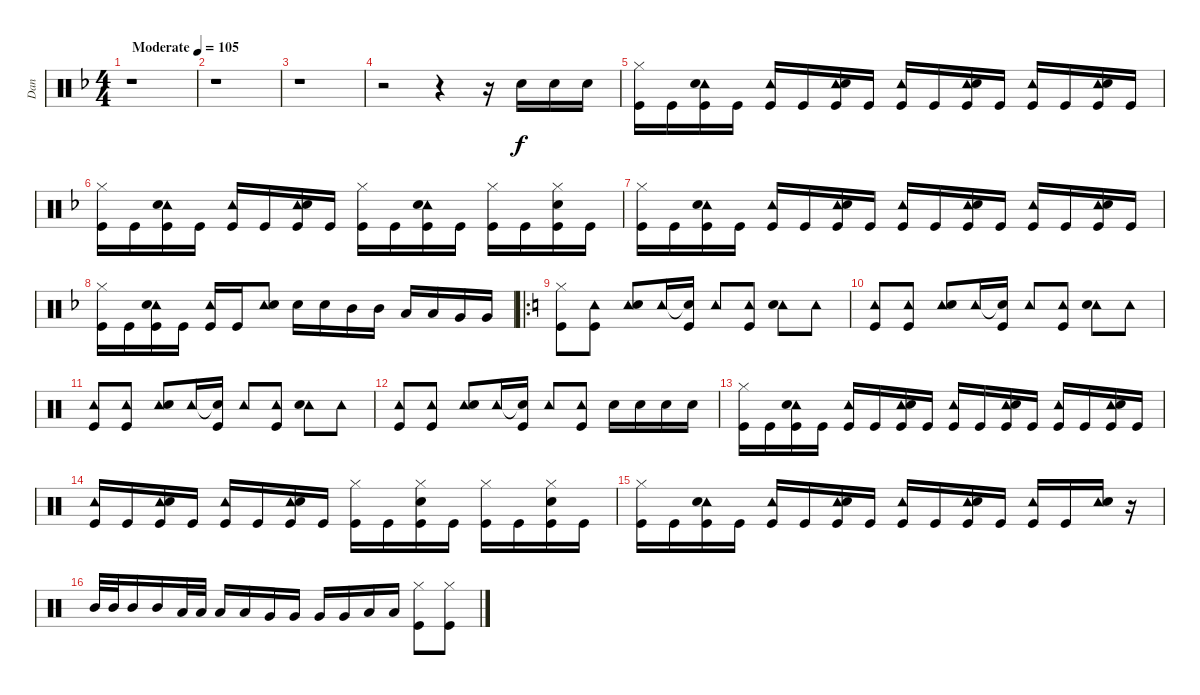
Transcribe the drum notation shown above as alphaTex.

\track ("Dan" "Dan") {instrument percussion}
\staff {score}
\articulation defaults
\ts (4 4)
\tempo (105 "Moderate")
\clef neutral
\ks f
r.1{dy f} |
r.1 |
r.1 |
r.2 r.4 r.16 "Snare (hit) 2".16 "Snare (hit) 2".16 "Snare (hit) 2".16 |
("Hi-Hat (closed)" "Kick (hit)").16 "Kick (hit)".16 ("Tambourine (hit)" "Snare (hit) 2" "Kick (hit)").16 "Kick (hit)".16 ("Tambourine (hit)" "Kick (hit)").16 "Kick (hit)".16 ("Tambourine (hit)" "Snare (hit) 2" "Kick (hit)").16 "Kick (hit)".16 ("Tambourine (hit)" "Kick (hit)").16 "Kick (hit)".16 ("Tambourine (hit)" "Snare (hit) 2" "Kick (hit)").16 "Kick (hit)".16 ("Tambourine (hit)" "Kick (hit)").16 "Kick (hit)".16 ("Tambourine (hit)" "Snare (hit) 2" "Kick (hit)").16 "Kick (hit)".16 |
("Hi-Hat (closed)" "Kick (hit)").16 "Kick (hit)".16 ("Tambourine (hit)" "Snare (hit) 2" "Kick (hit)").16 "Kick (hit)".16 ("Tambourine (hit)" "Kick (hit)").16 "Kick (hit)".16 ("Tambourine (hit)" "Snare (hit) 2" "Kick (hit)").16 "Kick (hit)".16 ("Hi-Hat (closed)" "Kick (hit)").16 "Kick (hit)".16 ("Tambourine (hit)" "Snare (hit) 2" "Kick (hit)").16 "Kick (hit)".16 ("Hi-Hat (closed)" "Kick (hit)").16 "Kick (hit)".16 ("Hi-Hat (closed)" "Snare (hit) 2" "Kick (hit)").16 "Kick (hit)".16 |
("Hi-Hat (closed)" "Kick (hit)").16 "Kick (hit)".16 ("Tambourine (hit)" "Snare (hit) 2" "Kick (hit)").16 "Kick (hit)".16 ("Tambourine (hit)" "Kick (hit)").16 "Kick (hit)".16 ("Tambourine (hit)" "Snare (hit) 2" "Kick (hit)").16 "Kick (hit)".16 ("Tambourine (hit)" "Kick (hit)").16 "Kick (hit)".16 ("Tambourine (hit)" "Snare (hit) 2" "Kick (hit)").16 "Kick (hit)".16 ("Tambourine (hit)" "Kick (hit)").16 "Kick (hit)".16 ("Tambourine (hit)" "Snare (hit) 2" "Kick (hit)").16 "Kick (hit)".16 |
("Hi-Hat (closed)" "Kick (hit)").16 "Kick (hit)".16 ("Tambourine (hit)" "Snare (hit) 2" "Kick (hit)").16 "Kick (hit)".16 ("Tambourine (hit)" "Kick (hit)").16 "Kick (hit)".16 ("Tambourine (hit)" "Snare (hit) 2").8 "Snare (hit) 2".16 "Snare (hit) 2".16 "Mid Tom (hit)".16 "Mid Tom (hit)".16 "Low Tom (hit)".16 "Low Tom (hit)".16 "Very Low Tom (hit)".16 "Very Low Tom (hit)".16 |
\ro
\ks c
("Hi-Hat (closed)" "Kick (hit)").8 ("Tambourine (hit)" "Kick (hit)").8 ("Tambourine (hit)" "Snare (hit) 2").8 "Tambourine (hit)".16 ("Snare (hit)"{t} "Kick (hit)").16 "Tambourine (hit)".8 ("Tambourine (hit)" "Kick (hit)").8 ("Tambourine (hit)" "Snare (hit) 2").8 "Tambourine (hit)".8 |
("Tambourine (hit)" "Kick (hit)").8 ("Tambourine (hit)" "Kick (hit)").8 ("Tambourine (hit)" "Snare (hit) 2").8 "Tambourine (hit)".16 ("Snare (hit)"{t} "Kick (hit)").16 "Tambourine (hit)".8 ("Tambourine (hit)" "Kick (hit)").8 ("Tambourine (hit)" "Snare (hit) 2").8 "Tambourine (hit)".8 |
("Tambourine (hit)" "Kick (hit)").8 ("Tambourine (hit)" "Kick (hit)").8 ("Tambourine (hit)" "Snare (hit) 2").8 "Tambourine (hit)".16 ("Snare (hit)"{t} "Kick (hit)").16 "Tambourine (hit)".8 ("Tambourine (hit)" "Kick (hit)").8 ("Tambourine (hit)" "Snare (hit) 2").8 "Tambourine (hit)".8 |
("Tambourine (hit)" "Kick (hit)").8 ("Tambourine (hit)" "Kick (hit)").8 ("Tambourine (hit)" "Snare (hit) 2").8 "Tambourine (hit)".16 ("Snare (hit)"{t} "Kick (hit)").16 "Tambourine (hit)".8 ("Tambourine (hit)" "Kick (hit)").8 "Snare (hit) 2".16 "Snare (hit) 2".16 "Snare (hit) 2".16 "Snare (hit) 2".16 |
("Hi-Hat (closed)" "Kick (hit)").16 "Kick (hit)".16 ("Tambourine (hit)" "Snare (hit) 2" "Kick (hit)").16 "Kick (hit)".16 ("Tambourine (hit)" "Kick (hit)").16 "Kick (hit)".16 ("Tambourine (hit)" "Snare (hit) 2" "Kick (hit)").16 "Kick (hit)".16 ("Tambourine (hit)" "Kick (hit)").16 "Kick (hit)".16 ("Tambourine (hit)" "Snare (hit) 2" "Kick (hit)").16 "Kick (hit)".16 ("Tambourine (hit)" "Kick (hit)").16 "Kick (hit)".16 ("Tambourine (hit)" "Snare (hit) 2" "Kick (hit)").16 "Kick (hit)".16 |
("Tambourine (hit)" "Kick (hit)").16 "Kick (hit)".16 ("Tambourine (hit)" "Snare (hit) 2" "Kick (hit)").16 "Kick (hit)".16 ("Tambourine (hit)" "Kick (hit)").16 "Kick (hit)".16 ("Tambourine (hit)" "Snare (hit) 2" "Kick (hit)").16 "Kick (hit)".16 ("Hi-Hat (closed)" "Kick (hit)").16 "Kick (hit)".16 ("Hi-Hat (closed)" "Snare (hit) 2" "Kick (hit)").16 "Kick (hit)".16 ("Hi-Hat (closed)" "Kick (hit)").16 "Kick (hit)".16 ("Hi-Hat (closed)" "Snare (hit) 2" "Kick (hit)").16 "Kick (hit)".16 |
("Hi-Hat (closed)" "Kick (hit)").16 "Kick (hit)".16 ("Tambourine (hit)" "Snare (hit) 2" "Kick (hit)").16 "Kick (hit)".16 ("Tambourine (hit)" "Kick (hit)").16 "Kick (hit)".16 ("Tambourine (hit)" "Snare (hit) 2" "Kick (hit)").16 "Kick (hit)".16 ("Tambourine (hit)" "Kick (hit)").16 "Kick (hit)".16 ("Tambourine (hit)" "Snare (hit) 2" "Kick (hit)").16 "Kick (hit)".16 ("Tambourine (hit)" "Kick (hit)").16 "Kick (hit)".16 ("Tambourine (hit)" "Snare (hit) 2").16 r.16 |
"Mid Tom (hit)".32 "Mid Tom (hit)".32 "Mid Tom (hit)".16 "Mid Tom (hit)".16 "Low Tom (hit)".32 "Low Tom (hit)".32 "Low Tom (hit)".16 "Low Tom (hit)".16 "Very Low Tom (hit)".16 "Very Low Tom (hit)".16 "Very Low Tom (hit)".16 "Very Low Tom (hit)".16 "Low Floor Tom (hit)".16 "Low Floor Tom (hit)".16 ("Hi-Hat (closed)" "Kick (hit)").8 ("Hi-Hat (closed)" "Kick (hit)").8
